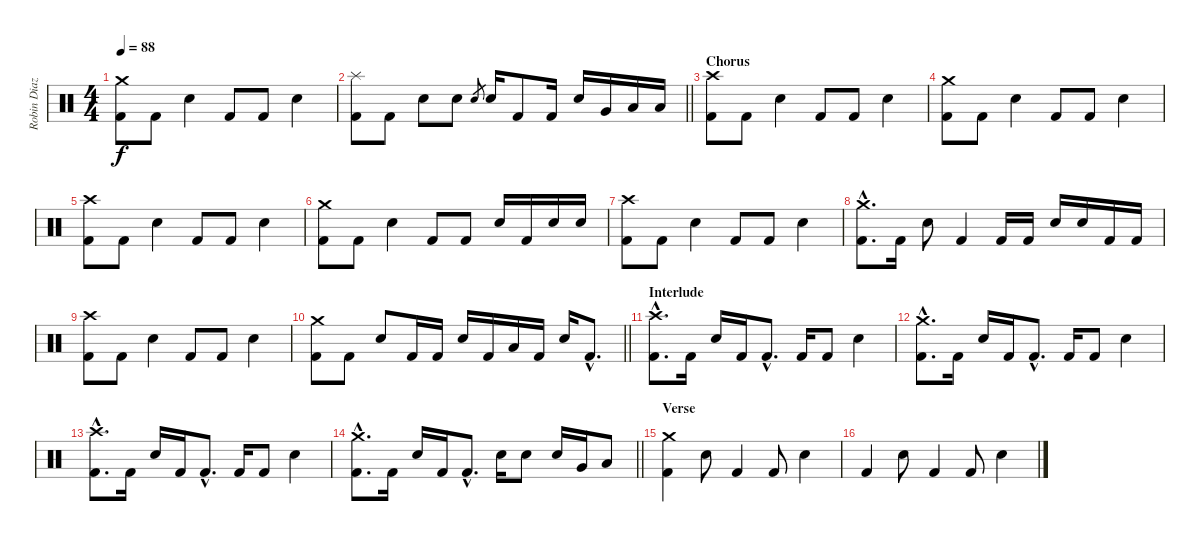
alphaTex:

\track ("Robin Diaz (Drums)" "Robin Diaz") {instrument percussion}
\staff {score}
\articulation defaults
\ts (4 4)
\tempo 88
\clef neutral
\ks c
("Crash medium (hit)" "Kick (hit) 2").8{dy f} "Kick (hit) 2".8 "Electric Snare (hit)".4 "Kick (hit) 2".8 "Kick (hit) 2".8 "Electric Snare (hit)".4 |
\barLineRight lightlight
("Splash (hit)" "Kick (hit) 2").8 "Kick (hit) 2".8 "Electric Snare (hit)".8 "Electric Snare (hit)".8 "Electric Snare (hit)".8{gr} "Electric Snare (hit)".16 "Kick (hit) 2".8 "Kick (hit) 2".16 "Electric Snare (hit)".16 "Very Low Tom (hit)".16 "Low Floor Tom (hit)".16 "Low Floor Tom (hit)".16 |
\section ("" "Chorus")
("Crash high (hit)" "Kick (hit) 2").8 "Kick (hit) 2".8 "Electric Snare (hit)".4 "Kick (hit) 2".8 "Kick (hit) 2".8 "Electric Snare (hit)".4 |
("Crash medium (hit)" "Kick (hit) 2").8 "Kick (hit) 2".8 "Electric Snare (hit)".4 "Kick (hit) 2".8 "Kick (hit) 2".8 "Electric Snare (hit)".4 |
("Crash high (hit)" "Kick (hit) 2").8 "Kick (hit) 2".8 "Electric Snare (hit)".4 "Kick (hit) 2".8 "Kick (hit) 2".8 "Electric Snare (hit)".4 |
("Crash medium (hit)" "Kick (hit) 2").8 "Kick (hit) 2".8 "Electric Snare (hit)".4 "Kick (hit) 2".8 "Kick (hit) 2".8 "Electric Snare (hit)".16 "Kick (hit) 2".16 "Electric Snare (hit)".16 "Electric Snare (hit)".16 |
("Crash high (hit)" "Kick (hit) 2").8 "Kick (hit) 2".8 "Electric Snare (hit)".4 "Kick (hit) 2".8 "Kick (hit) 2".8 "Electric Snare (hit)".4 |
("Crash medium (hit)"{hac} "Kick (hit) 2"{hac}).8{d} "Kick (hit) 2".16 "Electric Snare (hit)".8 "Kick (hit) 2".4 "Kick (hit) 2".16 "Kick (hit) 2".16 "Electric Snare (hit)".16 "Electric Snare (hit)".16 "Kick (hit) 2".16 "Kick (hit) 2".16 |
("Crash high (hit)" "Kick (hit) 2").8 "Kick (hit) 2".8 "Electric Snare (hit)".4 "Kick (hit) 2".8 "Kick (hit) 2".8 "Electric Snare (hit)".4 |
\barLineRight lightlight
("Crash medium (hit)" "Kick (hit) 2").8 "Kick (hit) 2".8 "Electric Snare (hit)".8 "Kick (hit) 2".16 "Kick (hit) 2".16 "Electric Snare (hit)".16 "Kick (hit) 2".16 "Low Floor Tom (hit)".16 "Kick (hit) 2".16 "Electric Snare (hit)".16 "Kick (hit) 2"{hac}.8{d} |
\section ("" "Interlude")
("Crash high (hit)"{hac} "Kick (hit) 2"{hac}).8{d} "Kick (hit) 2".16 "Electric Snare (hit)".16 "Kick (hit) 2".16 "Kick (hit) 2"{hac}.8{d} "Kick (hit) 2".16 "Kick (hit) 2".8 "Electric Snare (hit)".4 |
("Crash medium (hit)"{hac} "Kick (hit) 2"{hac}).8{d} "Kick (hit) 2".16 "Electric Snare (hit)".16 "Kick (hit) 2".16 "Kick (hit) 2"{hac}.8{d} "Kick (hit) 2".16 "Kick (hit) 2".8 "Electric Snare (hit)".4 |
("Crash high (hit)"{hac} "Kick (hit) 2"{hac}).8{d} "Kick (hit) 2".16 "Electric Snare (hit)".16 "Kick (hit) 2".16 "Kick (hit) 2"{hac}.8{d} "Kick (hit) 2".16 "Kick (hit) 2".8 "Electric Snare (hit)".4 |
\barLineRight lightlight
("Crash medium (hit)"{hac} "Kick (hit) 2"{hac}).8{d} "Kick (hit) 2".16 "Electric Snare (hit)".16 "Kick (hit) 2".16 "Kick (hit) 2"{hac}.8{d} "Electric Snare (hit)".16 "Electric Snare (hit)".8 "Electric Snare (hit)".16 "Very Low Tom (hit)".16 "Low Floor Tom (hit)".8 |
\section ("" "Verse")
("Crash medium (hit)" "Kick (hit) 2").4 "Electric Snare (hit)".8 "Kick (hit) 2".4 "Kick (hit) 2".8 "Electric Snare (hit)".4 |
"Kick (hit) 2".4 "Electric Snare (hit)".8 "Kick (hit) 2".4 "Kick (hit) 2".8 "Electric Snare (hit)".4
